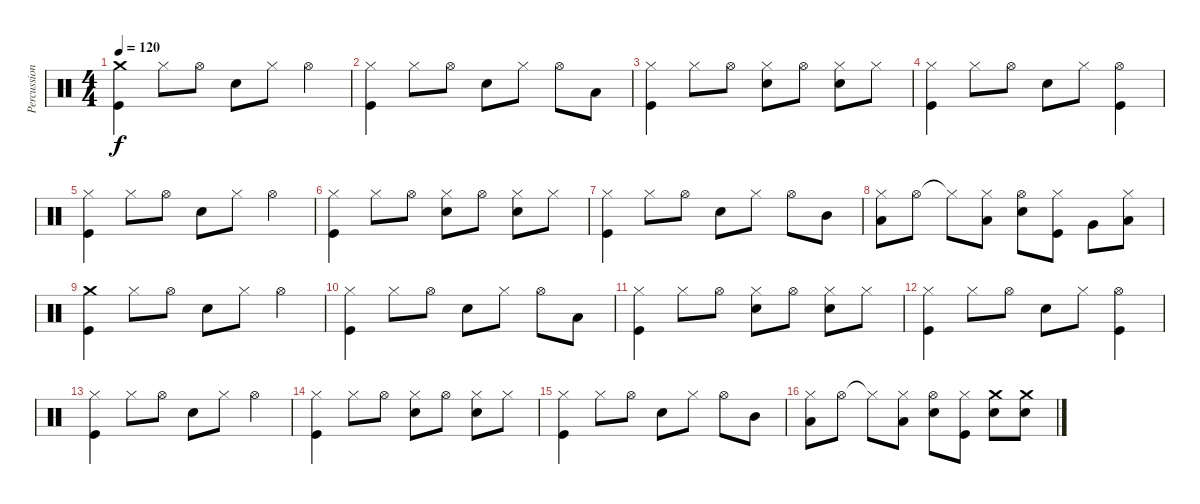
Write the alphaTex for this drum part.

\track ("Percussions" "Percussion") {instrument percussion}
\staff {score}
\articulation defaults
\ts (4 4)
\tempo 120
\clef neutral
\ks c
("Crash medium (hit)" "Kick (hit)").4{dy f} "Hi-Hat (closed)".8 "Hi-Hat (open)".8 "Electric Snare (hit)".8 "Hi-Hat (closed)".8 "Hi-Hat (open)".4 |
("Hi-Hat (closed)" "Kick (hit)").4 "Hi-Hat (closed)".8 "Hi-Hat (open)".8 "Electric Snare (hit)".8 "Hi-Hat (closed)".8 "Hi-Hat (open)".8 "Low Floor Tom (hit)".8 |
("Hi-Hat (closed)" "Kick (hit)").4 "Hi-Hat (closed)".8 "Hi-Hat (open)".8 ("Hi-Hat (closed)" "Electric Snare (hit)").8 "Hi-Hat (open)".8 ("Hi-Hat (closed)" "Electric Snare (hit)").8 "Hi-Hat (closed)".8 |
("Hi-Hat (closed)" "Kick (hit)").4 "Hi-Hat (closed)".8 "Hi-Hat (open)".8 "Electric Snare (hit)".8 "Hi-Hat (closed)".8 ("Hi-Hat (open)" "Kick (hit)").4 |
("Hi-Hat (closed)" "Kick (hit)").4 "Hi-Hat (closed)".8 "Hi-Hat (open)".8 "Electric Snare (hit)".8 "Hi-Hat (closed)".8 "Hi-Hat (open)".4 |
("Hi-Hat (closed)" "Kick (hit)").4 "Hi-Hat (closed)".8 "Hi-Hat (open)".8 ("Hi-Hat (closed)" "Electric Snare (hit)").8 "Hi-Hat (open)".8 ("Hi-Hat (closed)" "Electric Snare (hit)").8 "Hi-Hat (closed)".8 |
("Hi-Hat (closed)" "Kick (hit)").4 "Hi-Hat (closed)".8 "Hi-Hat (open)".8 "Electric Snare (hit)".8 "Hi-Hat (closed)".8 "Hi-Hat (open)".8 "Mid Tom (hit)".8 |
("Hi-Hat (closed)" "Low Tom (hit)").8 "Hi-Hat (open)".8 "Hi-Hat (closed)"{t}.8 ("Hi-Hat (closed)" "Low Tom (hit)").8 ("Hi-Hat (open)" "Electric Snare (hit)").8 ("Hi-Hat (closed)" "Kick (hit)").8 "Very Low Tom (hit)".8 ("Hi-Hat (closed)" "Low Floor Tom (hit)").8 |
("Crash medium (hit)" "Kick (hit)").4 "Hi-Hat (closed)".8 "Hi-Hat (open)".8 "Electric Snare (hit)".8 "Hi-Hat (closed)".8 "Hi-Hat (open)".4 |
("Hi-Hat (closed)" "Kick (hit)").4 "Hi-Hat (closed)".8 "Hi-Hat (open)".8 "Electric Snare (hit)".8 "Hi-Hat (closed)".8 "Hi-Hat (open)".8 "Low Floor Tom (hit)".8 |
("Hi-Hat (closed)" "Kick (hit)").4 "Hi-Hat (closed)".8 "Hi-Hat (open)".8 ("Hi-Hat (closed)" "Electric Snare (hit)").8 "Hi-Hat (open)".8 ("Hi-Hat (closed)" "Electric Snare (hit)").8 "Hi-Hat (closed)".8 |
("Hi-Hat (closed)" "Kick (hit)").4 "Hi-Hat (closed)".8 "Hi-Hat (open)".8 "Electric Snare (hit)".8 "Hi-Hat (closed)".8 ("Hi-Hat (open)" "Kick (hit)").4 |
("Hi-Hat (closed)" "Kick (hit)").4 "Hi-Hat (closed)".8 "Hi-Hat (open)".8 "Electric Snare (hit)".8 "Hi-Hat (closed)".8 "Hi-Hat (open)".4 |
("Hi-Hat (closed)" "Kick (hit)").4 "Hi-Hat (closed)".8 "Hi-Hat (open)".8 ("Hi-Hat (closed)" "Electric Snare (hit)").8 "Hi-Hat (open)".8 ("Hi-Hat (closed)" "Electric Snare (hit)").8 "Hi-Hat (closed)".8 |
("Hi-Hat (closed)" "Kick (hit)").4 "Hi-Hat (closed)".8 "Hi-Hat (open)".8 "Electric Snare (hit)".8 "Hi-Hat (closed)".8 "Hi-Hat (open)".8 "Mid Tom (hit)".8 |
("Hi-Hat (closed)" "Low Tom (hit)").8 "Hi-Hat (open)".8 "Hi-Hat (closed)"{t}.8 ("Hi-Hat (closed)" "Low Tom (hit)").8 ("Hi-Hat (open)" "Electric Snare (hit)").8 ("Hi-Hat (closed)" "Kick (hit)").8 ("Crash medium (hit)" "Electric Snare (hit)").8 ("Crash medium (hit)" "Electric Snare (hit)").8
